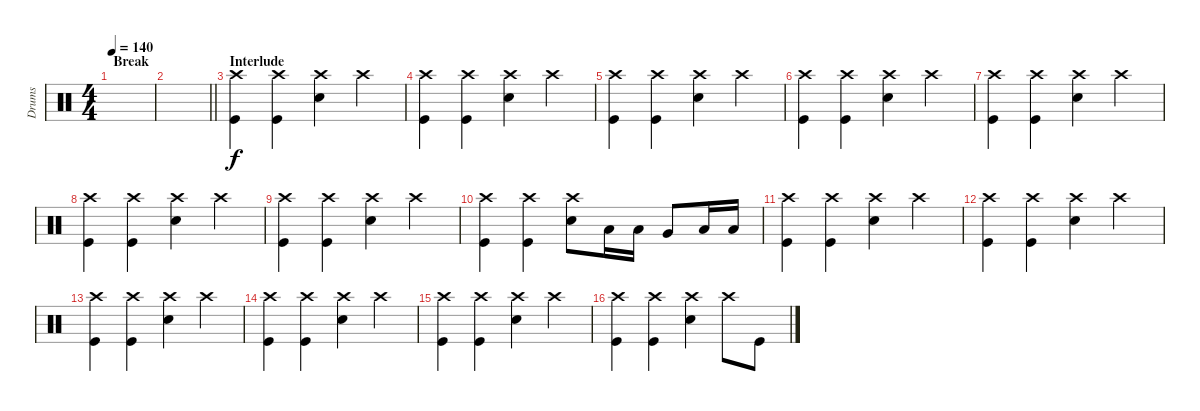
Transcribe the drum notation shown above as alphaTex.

\track ("Drums" "Drums") {instrument percussion}
\staff {score}
\articulation defaults
\ts (4 4)
\section ("" "Break")
\tempo 140
\clef neutral
\ks c
|
\barLineRight lightlight
|
\section ("" "Interlude")
("Kick (hit)" "Crash high (hit)").4 ("Kick (hit)" "Crash high (hit)").4 ("Snare (hit) 2" "Crash high (hit)").4 "Crash high (hit)".4 |
("Kick (hit)" "Crash high (hit)").4 ("Kick (hit)" "Crash high (hit)").4 ("Snare (hit) 2" "Crash high (hit)").4 "Crash high (hit)".4 |
("Kick (hit)" "Crash high (hit)").4 ("Kick (hit)" "Crash high (hit)").4 ("Snare (hit) 2" "Crash high (hit)").4 "Crash high (hit)".4 |
("Kick (hit)" "Crash high (hit)").4 ("Kick (hit)" "Crash high (hit)").4 ("Snare (hit) 2" "Crash high (hit)").4 "Crash high (hit)".4 |
("Kick (hit)" "Crash high (hit)").4 ("Kick (hit)" "Crash high (hit)").4 ("Snare (hit) 2" "Crash high (hit)").4 "Crash high (hit)".4 |
("Kick (hit)" "Crash high (hit)").4 ("Kick (hit)" "Crash high (hit)").4 ("Snare (hit) 2" "Crash high (hit)").4 "Crash high (hit)".4 |
("Kick (hit)" "Crash high (hit)").4 ("Kick (hit)" "Crash high (hit)").4 ("Snare (hit) 2" "Crash high (hit)").4 "Crash high (hit)".4 |
("Kick (hit)" "Crash high (hit)").4 ("Kick (hit)" "Crash high (hit)").4 ("Snare (hit) 2" "Crash high (hit)").8 "Low Tom (hit)".16 "Low Tom (hit)".16 "Very Low Tom (hit)".8 "Low Floor Tom (hit)".16 "Low Floor Tom (hit)".16 |
("Kick (hit)" "Crash high (hit)").4 ("Kick (hit)" "Crash high (hit)").4 ("Snare (hit) 2" "Crash high (hit)").4 "Crash high (hit)".4 |
("Kick (hit)" "Crash high (hit)").4 ("Kick (hit)" "Crash high (hit)").4 ("Snare (hit) 2" "Crash high (hit)").4 "Crash high (hit)".4 |
("Kick (hit)" "Crash high (hit)").4 ("Kick (hit)" "Crash high (hit)").4 ("Snare (hit) 2" "Crash high (hit)").4 "Crash high (hit)".4 |
("Kick (hit)" "Crash high (hit)").4 ("Kick (hit)" "Crash high (hit)").4 ("Snare (hit) 2" "Crash high (hit)").4 "Crash high (hit)".4 |
("Kick (hit)" "Crash high (hit)").4 ("Kick (hit)" "Crash high (hit)").4 ("Snare (hit) 2" "Crash high (hit)").4 "Crash high (hit)".4 |
("Kick (hit)" "Crash high (hit)").4 ("Kick (hit)" "Crash high (hit)").4 ("Snare (hit) 2" "Crash high (hit)").4 "Crash high (hit)".8 "Kick (hit)".8{dy f}
